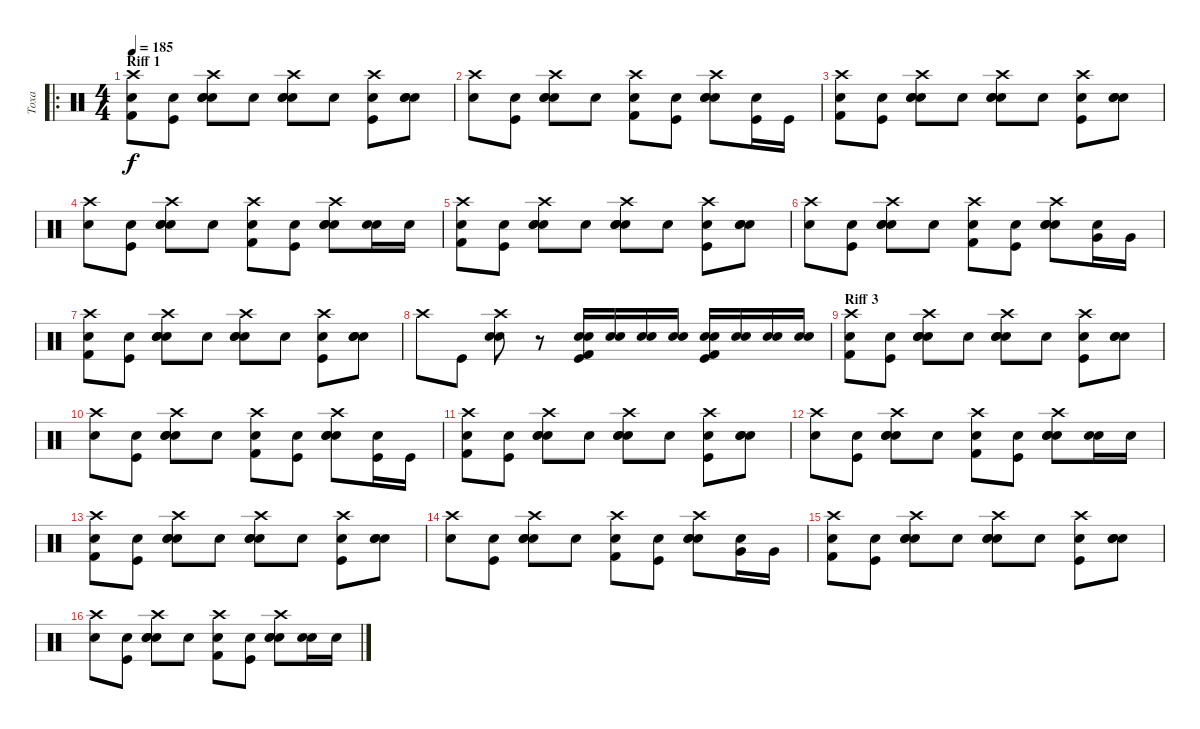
\track ("Toxa" "Toxa") {instrument percussion}
\staff {score}
\articulation defaults
\ro
\ts (4 4)
\section ("" "Riff 1")
\tempo 185
\clef neutral
\ks c
("Crash high (hit)" "Kick (hit) 2" "Snare (hit)"{x}).8{dy f} ("Kick (hit)" "Snare (hit)"{x}).8 ("Crash high (hit)" "Electric Snare (hit)" "Snare (hit) 2" "Snare (hit)"{x}).8 "Snare (hit)"{x}.8 ("Crash high (hit)" "Electric Snare (hit)" "Snare (hit) 2" "Snare (hit)"{x}).8 "Snare (hit)"{x}.8 ("Crash high (hit)" "Kick (hit)" "Snare (hit)"{x}).8 ("Electric Snare (hit)" "Snare (hit) 2" "Snare (hit)"{x}).8 |
("Crash high (hit)" "Snare (hit)"{x}).8 ("Kick (hit)" "Snare (hit)"{x}).8 ("Crash high (hit)" "Electric Snare (hit)" "Snare (hit) 2" "Snare (hit)"{x}).8 "Snare (hit)"{x}.8 ("Crash high (hit)" "Kick (hit) 2" "Snare (hit)"{x}).8 ("Kick (hit)" "Snare (hit)"{x}).8 ("Crash high (hit)" "Electric Snare (hit)" "Snare (hit) 2" "Snare (hit)"{x}).8 ("Kick (hit)" "Snare (hit)"{x}).16 "Kick (hit)".16 |
("Crash high (hit)" "Kick (hit) 2" "Snare (hit)"{x}).8 ("Kick (hit)" "Snare (hit)"{x}).8 ("Crash high (hit)" "Electric Snare (hit)" "Snare (hit) 2" "Snare (hit)"{x}).8 "Snare (hit)"{x}.8 ("Crash high (hit)" "Electric Snare (hit)" "Snare (hit) 2" "Snare (hit)"{x}).8 "Snare (hit)"{x}.8 ("Crash high (hit)" "Kick (hit)" "Snare (hit)"{x}).8 ("Electric Snare (hit)" "Snare (hit) 2" "Snare (hit)"{x}).8 |
("Crash high (hit)" "Snare (hit)"{x}).8 ("Kick (hit)" "Snare (hit)"{x}).8 ("Crash high (hit)" "Electric Snare (hit)" "Snare (hit) 2" "Snare (hit)"{x}).8 "Snare (hit)"{x}.8 ("Crash high (hit)" "Kick (hit) 2" "Snare (hit)"{x}).8 ("Kick (hit)" "Snare (hit)"{x}).8 ("Crash high (hit)" "Electric Snare (hit)" "Snare (hit) 2" "Snare (hit)"{x}).8 ("Electric Snare (hit)" "Snare (hit)"{x}).16 "Electric Snare (hit)".16 |
("Crash high (hit)" "Kick (hit) 2" "Snare (hit)"{x}).8 ("Kick (hit)" "Snare (hit)"{x}).8 ("Crash high (hit)" "Electric Snare (hit)" "Snare (hit) 2" "Snare (hit)"{x}).8 "Snare (hit)"{x}.8 ("Crash high (hit)" "Electric Snare (hit)" "Snare (hit) 2" "Snare (hit)"{x}).8 "Snare (hit)"{x}.8 ("Crash high (hit)" "Kick (hit)" "Snare (hit)"{x}).8 ("Electric Snare (hit)" "Snare (hit) 2" "Snare (hit)"{x}).8 |
("Crash high (hit)" "Snare (hit)"{x}).8 ("Kick (hit)" "Snare (hit)"{x}).8 ("Crash high (hit)" "Electric Snare (hit)" "Snare (hit) 2" "Snare (hit)"{x}).8 "Snare (hit)"{x}.8 ("Crash high (hit)" "Kick (hit) 2" "Snare (hit)"{x}).8 ("Kick (hit)" "Snare (hit)"{x}).8 ("Crash high (hit)" "Electric Snare (hit)" "Snare (hit) 2" "Snare (hit)"{x}).8 ("Very Low Tom (hit)" "Snare (hit)"{x}).16 "Very Low Tom (hit)".16 |
("Crash high (hit)" "Kick (hit) 2" "Snare (hit)"{x}).8 ("Kick (hit)" "Snare (hit)"{x}).8 ("Crash high (hit)" "Electric Snare (hit)" "Snare (hit) 2" "Snare (hit)"{x}).8 "Snare (hit)"{x}.8 ("Crash high (hit)" "Electric Snare (hit)" "Snare (hit) 2" "Snare (hit)"{x}).8 "Snare (hit)"{x}.8 ("Crash high (hit)" "Kick (hit)" "Snare (hit)"{x}).8 ("Electric Snare (hit)" "Snare (hit) 2" "Snare (hit)"{x}).8 |
"Crash high (hit)".8 "Kick (hit)".8 ("Crash high (hit)" "Electric Snare (hit)" "Snare (hit) 2").8 r.8 ("Kick (hit) 2" "Kick (hit)" "Electric Snare (hit)" "Snare (hit)"{x}).16 ("Electric Snare (hit)" "Snare (hit)"{x}).16 ("Electric Snare (hit)" "Snare (hit)"{x}).16 ("Electric Snare (hit)" "Snare (hit)"{x}).16 ("Kick (hit) 2" "Kick (hit)" "Electric Snare (hit)" "Snare (hit)"{x}).16 ("Electric Snare (hit)" "Snare (hit)"{x}).16 ("Electric Snare (hit)" "Snare (hit)"{x}).16 ("Electric Snare (hit)" "Snare (hit)"{x}).16 |
\section ("" "Riff 3")
("Crash high (hit)" "Kick (hit) 2" "Snare (hit)"{x}).8 ("Kick (hit)" "Snare (hit)"{x}).8 ("Crash high (hit)" "Electric Snare (hit)" "Snare (hit) 2" "Snare (hit)"{x}).8 "Snare (hit)"{x}.8 ("Crash high (hit)" "Electric Snare (hit)" "Snare (hit) 2" "Snare (hit)"{x}).8 "Snare (hit)"{x}.8 ("Crash high (hit)" "Kick (hit)" "Snare (hit)"{x}).8 ("Electric Snare (hit)" "Snare (hit) 2" "Snare (hit)"{x}).8 |
("Crash high (hit)" "Snare (hit)"{x}).8 ("Kick (hit)" "Snare (hit)"{x}).8 ("Crash high (hit)" "Electric Snare (hit)" "Snare (hit) 2" "Snare (hit)"{x}).8 "Snare (hit)"{x}.8 ("Crash high (hit)" "Kick (hit) 2" "Snare (hit)"{x}).8 ("Kick (hit)" "Snare (hit)"{x}).8 ("Crash high (hit)" "Electric Snare (hit)" "Snare (hit) 2" "Snare (hit)"{x}).8 ("Kick (hit)" "Snare (hit)"{x}).16 "Kick (hit)".16 |
("Crash high (hit)" "Kick (hit) 2" "Snare (hit)"{x}).8 ("Kick (hit)" "Snare (hit)"{x}).8 ("Crash high (hit)" "Electric Snare (hit)" "Snare (hit) 2" "Snare (hit)"{x}).8 "Snare (hit)"{x}.8 ("Crash high (hit)" "Electric Snare (hit)" "Snare (hit) 2" "Snare (hit)"{x}).8 "Snare (hit)"{x}.8 ("Crash high (hit)" "Kick (hit)" "Snare (hit)"{x}).8 ("Electric Snare (hit)" "Snare (hit) 2" "Snare (hit)"{x}).8 |
("Crash high (hit)" "Snare (hit)"{x}).8 ("Kick (hit)" "Snare (hit)"{x}).8 ("Crash high (hit)" "Electric Snare (hit)" "Snare (hit) 2" "Snare (hit)"{x}).8 "Snare (hit)"{x}.8 ("Crash high (hit)" "Kick (hit) 2" "Snare (hit)"{x}).8 ("Kick (hit)" "Snare (hit)"{x}).8 ("Crash high (hit)" "Electric Snare (hit)" "Snare (hit) 2" "Snare (hit)"{x}).8 ("Electric Snare (hit)" "Snare (hit)"{x}).16 "Electric Snare (hit)".16 |
("Crash high (hit)" "Kick (hit) 2" "Snare (hit)"{x}).8 ("Kick (hit)" "Snare (hit)"{x}).8 ("Crash high (hit)" "Electric Snare (hit)" "Snare (hit) 2" "Snare (hit)"{x}).8 "Snare (hit)"{x}.8 ("Crash high (hit)" "Electric Snare (hit)" "Snare (hit) 2" "Snare (hit)"{x}).8 "Snare (hit)"{x}.8 ("Crash high (hit)" "Kick (hit)" "Snare (hit)"{x}).8 ("Electric Snare (hit)" "Snare (hit) 2" "Snare (hit)"{x}).8 |
("Crash high (hit)" "Snare (hit)"{x}).8 ("Kick (hit)" "Snare (hit)"{x}).8 ("Crash high (hit)" "Electric Snare (hit)" "Snare (hit) 2" "Snare (hit)"{x}).8 "Snare (hit)"{x}.8 ("Crash high (hit)" "Kick (hit) 2" "Snare (hit)"{x}).8 ("Kick (hit)" "Snare (hit)"{x}).8 ("Crash high (hit)" "Electric Snare (hit)" "Snare (hit) 2" "Snare (hit)"{x}).8 ("Very Low Tom (hit)" "Snare (hit)"{x}).16 "Very Low Tom (hit)".16 |
("Crash high (hit)" "Kick (hit) 2" "Snare (hit)"{x}).8 ("Kick (hit)" "Snare (hit)"{x}).8 ("Crash high (hit)" "Electric Snare (hit)" "Snare (hit) 2" "Snare (hit)"{x}).8 "Snare (hit)"{x}.8 ("Crash high (hit)" "Electric Snare (hit)" "Snare (hit) 2" "Snare (hit)"{x}).8 "Snare (hit)"{x}.8 ("Crash high (hit)" "Kick (hit)" "Snare (hit)"{x}).8 ("Electric Snare (hit)" "Snare (hit) 2" "Snare (hit)"{x}).8 |
("Crash high (hit)" "Snare (hit)"{x}).8 ("Kick (hit)" "Snare (hit)"{x}).8 ("Crash high (hit)" "Electric Snare (hit)" "Snare (hit) 2" "Snare (hit)"{x}).8 "Snare (hit)"{x}.8 ("Crash high (hit)" "Kick (hit) 2" "Snare (hit)"{x}).8 ("Kick (hit)" "Snare (hit)"{x}).8 ("Crash high (hit)" "Electric Snare (hit)" "Snare (hit) 2" "Snare (hit)"{x}).8 ("Electric Snare (hit)" "Snare (hit)"{x}).16 "Electric Snare (hit)".16
